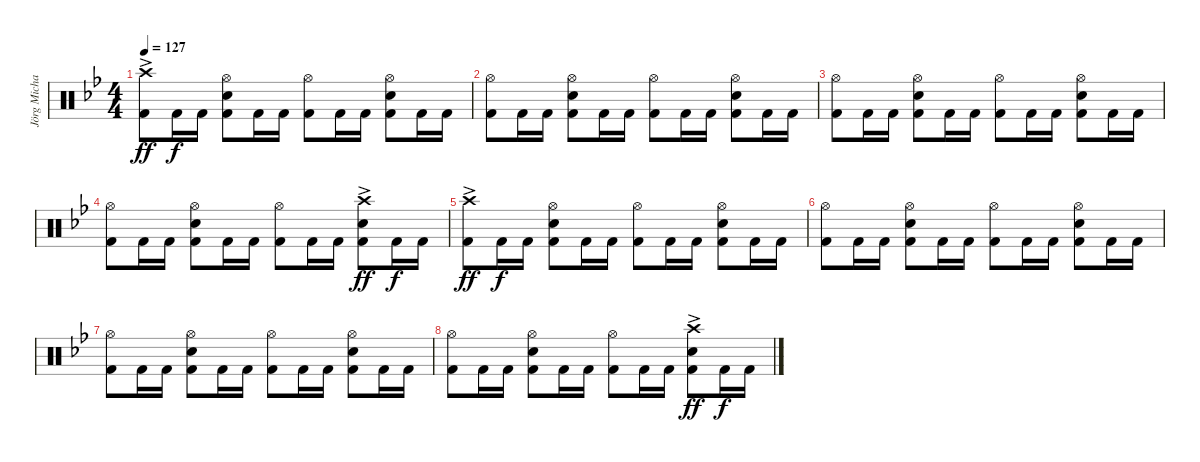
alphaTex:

\track ("Jörg Michael" "Jörg Micha") {instrument percussion}
\staff {score}
\articulation defaults
\ts (4 4)
\tempo 127
\clef neutral
\ks bb
("Crash high (hit)"{ac} "Kick (hit) 2"{ac}).8{dy ff} "Kick (hit) 2".16{dy f} "Kick (hit) 2".16 ("Electric Snare (hit)" "Kick (hit) 2" "Hi-Hat (open)").8 "Kick (hit) 2".16 "Kick (hit) 2".16 ("Kick (hit) 2" "Hi-Hat (open)").8 "Kick (hit) 2".16 "Kick (hit) 2".16 ("Electric Snare (hit)" "Kick (hit) 2" "Hi-Hat (open)").8 "Kick (hit) 2".16 "Kick (hit) 2".16 |
("Hi-Hat (open)" "Kick (hit) 2").8 "Kick (hit) 2".16 "Kick (hit) 2".16 ("Electric Snare (hit)" "Kick (hit) 2" "Hi-Hat (open)").8 "Kick (hit) 2".16 "Kick (hit) 2".16 ("Kick (hit) 2" "Hi-Hat (open)").8 "Kick (hit) 2".16 "Kick (hit) 2".16 ("Electric Snare (hit)" "Kick (hit) 2" "Hi-Hat (open)").8 "Kick (hit) 2".16 "Kick (hit) 2".16 |
("Hi-Hat (open)" "Kick (hit) 2").8 "Kick (hit) 2".16 "Kick (hit) 2".16 ("Electric Snare (hit)" "Kick (hit) 2" "Hi-Hat (open)").8 "Kick (hit) 2".16 "Kick (hit) 2".16 ("Kick (hit) 2" "Hi-Hat (open)").8 "Kick (hit) 2".16 "Kick (hit) 2".16 ("Electric Snare (hit)" "Kick (hit) 2" "Hi-Hat (open)").8 "Kick (hit) 2".16 "Kick (hit) 2".16 |
("Hi-Hat (open)" "Kick (hit) 2").8 "Kick (hit) 2".16 "Kick (hit) 2".16 ("Electric Snare (hit)" "Kick (hit) 2" "Hi-Hat (open)").8 "Kick (hit) 2".16 "Kick (hit) 2".16 ("Kick (hit) 2" "Hi-Hat (open)").8 "Kick (hit) 2".16 "Kick (hit) 2".16 ("Electric Snare (hit)"{ac} "Kick (hit) 2"{ac} "Crash high (hit)"{ac}).8{dy ff} "Kick (hit) 2".16{dy f} "Kick (hit) 2".16 |
("Crash high (hit)"{ac} "Kick (hit) 2"{ac}).8{dy ff} "Kick (hit) 2".16{dy f} "Kick (hit) 2".16 ("Electric Snare (hit)" "Kick (hit) 2" "Hi-Hat (open)").8 "Kick (hit) 2".16 "Kick (hit) 2".16 ("Kick (hit) 2" "Hi-Hat (open)").8 "Kick (hit) 2".16 "Kick (hit) 2".16 ("Electric Snare (hit)" "Kick (hit) 2" "Hi-Hat (open)").8 "Kick (hit) 2".16 "Kick (hit) 2".16 |
("Hi-Hat (open)" "Kick (hit) 2").8 "Kick (hit) 2".16 "Kick (hit) 2".16 ("Electric Snare (hit)" "Kick (hit) 2" "Hi-Hat (open)").8 "Kick (hit) 2".16 "Kick (hit) 2".16 ("Kick (hit) 2" "Hi-Hat (open)").8 "Kick (hit) 2".16 "Kick (hit) 2".16 ("Electric Snare (hit)" "Kick (hit) 2" "Hi-Hat (open)").8 "Kick (hit) 2".16 "Kick (hit) 2".16 |
("Hi-Hat (open)" "Kick (hit) 2").8 "Kick (hit) 2".16 "Kick (hit) 2".16 ("Electric Snare (hit)" "Kick (hit) 2" "Hi-Hat (open)").8 "Kick (hit) 2".16 "Kick (hit) 2".16 ("Kick (hit) 2" "Hi-Hat (open)").8 "Kick (hit) 2".16 "Kick (hit) 2".16 ("Electric Snare (hit)" "Kick (hit) 2" "Hi-Hat (open)").8 "Kick (hit) 2".16 "Kick (hit) 2".16 |
("Hi-Hat (open)" "Kick (hit) 2").8 "Kick (hit) 2".16 "Kick (hit) 2".16 ("Electric Snare (hit)" "Kick (hit) 2" "Hi-Hat (open)").8 "Kick (hit) 2".16 "Kick (hit) 2".16 ("Kick (hit) 2" "Hi-Hat (open)").8 "Kick (hit) 2".16 "Kick (hit) 2".16 ("Electric Snare (hit)"{ac} "Kick (hit) 2"{ac} "Crash high (hit)"{ac}).8{dy ff} "Kick (hit) 2".16{dy f} "Kick (hit) 2".16
